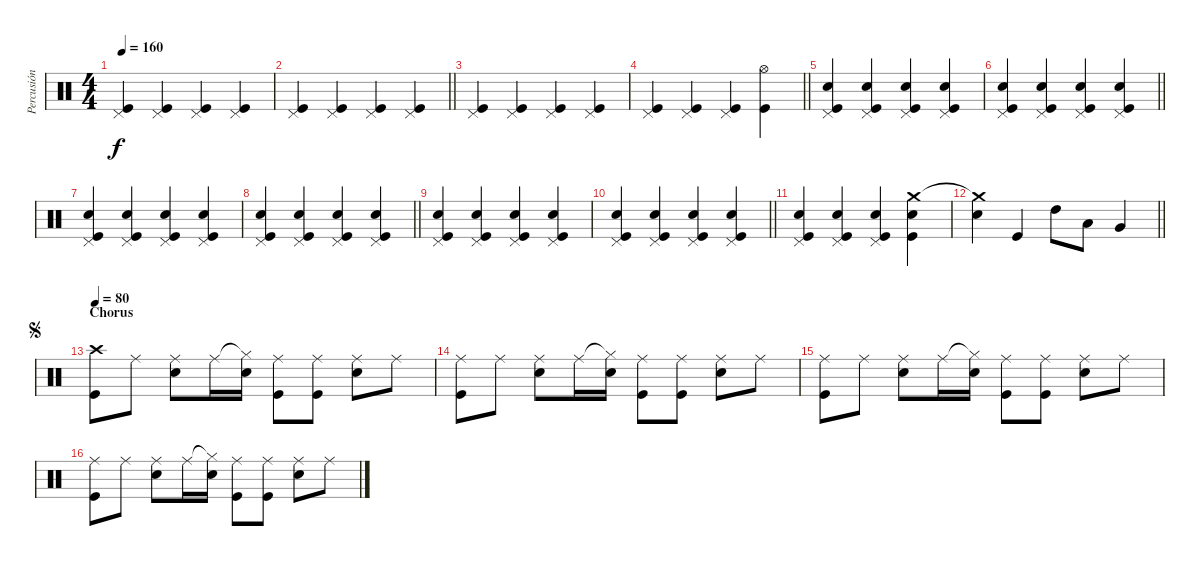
\track ("Percusión" "Percusión") {instrument percussion}
\staff {score}
\articulation defaults
\ts (4 4)
\tempo 160
\clef neutral
\ks c
("Pedal Hi-Hat (hit)" "Kick (hit)").4{dy f} ("Pedal Hi-Hat (hit)" "Kick (hit)").4 ("Pedal Hi-Hat (hit)" "Kick (hit)").4 ("Pedal Hi-Hat (hit)" "Kick (hit)").4 |
\barLineRight lightlight
("Pedal Hi-Hat (hit)" "Kick (hit)").4 ("Pedal Hi-Hat (hit)" "Kick (hit)").4 ("Pedal Hi-Hat (hit)" "Kick (hit)").4 ("Pedal Hi-Hat (hit)" "Kick (hit)").4 |
("Pedal Hi-Hat (hit)" "Kick (hit)").4 ("Pedal Hi-Hat (hit)" "Kick (hit)").4 ("Pedal Hi-Hat (hit)" "Kick (hit)").4 ("Pedal Hi-Hat (hit)" "Kick (hit)").4 |
\barLineRight lightlight
("Pedal Hi-Hat (hit)" "Kick (hit)").4 ("Pedal Hi-Hat (hit)" "Kick (hit)").4 ("Pedal Hi-Hat (hit)" "Kick (hit)").4 ("Hi-Hat (open)" "Kick (hit)").4 |
("Pedal Hi-Hat (hit)" "Snare (hit) 2" "Kick (hit)").4 ("Pedal Hi-Hat (hit)" "Snare (hit) 2" "Kick (hit)").4 ("Pedal Hi-Hat (hit)" "Snare (hit) 2" "Kick (hit)").4 ("Pedal Hi-Hat (hit)" "Snare (hit) 2" "Kick (hit)").4 |
\barLineRight lightlight
("Pedal Hi-Hat (hit)" "Snare (hit) 2" "Kick (hit)").4 ("Pedal Hi-Hat (hit)" "Snare (hit) 2" "Kick (hit)").4 ("Pedal Hi-Hat (hit)" "Snare (hit) 2" "Kick (hit)").4 ("Pedal Hi-Hat (hit)" "Snare (hit) 2" "Kick (hit)").4 |
("Pedal Hi-Hat (hit)" "Snare (hit) 2" "Kick (hit)").4 ("Pedal Hi-Hat (hit)" "Snare (hit) 2" "Kick (hit)").4 ("Pedal Hi-Hat (hit)" "Snare (hit) 2" "Kick (hit)").4 ("Pedal Hi-Hat (hit)" "Snare (hit) 2" "Kick (hit)").4 |
\barLineRight lightlight
("Pedal Hi-Hat (hit)" "Snare (hit) 2" "Kick (hit)").4 ("Pedal Hi-Hat (hit)" "Snare (hit) 2" "Kick (hit)").4 ("Pedal Hi-Hat (hit)" "Snare (hit) 2" "Kick (hit)").4 ("Pedal Hi-Hat (hit)" "Snare (hit) 2" "Kick (hit)").4 |
("Pedal Hi-Hat (hit)" "Snare (hit) 2" "Kick (hit)").4 ("Pedal Hi-Hat (hit)" "Snare (hit) 2" "Kick (hit)").4 ("Pedal Hi-Hat (hit)" "Snare (hit) 2" "Kick (hit)").4 ("Pedal Hi-Hat (hit)" "Snare (hit) 2" "Kick (hit)").4 |
\barLineRight lightlight
("Pedal Hi-Hat (hit)" "Snare (hit) 2" "Kick (hit)").4 ("Pedal Hi-Hat (hit)" "Snare (hit) 2" "Kick (hit)").4 ("Pedal Hi-Hat (hit)" "Snare (hit) 2" "Kick (hit)").4 ("Pedal Hi-Hat (hit)" "Snare (hit) 2" "Kick (hit)").4 |
("Pedal Hi-Hat (hit)" "Snare (hit) 2" "Kick (hit)").4 ("Pedal Hi-Hat (hit)" "Snare (hit) 2" "Kick (hit)").4 ("Pedal Hi-Hat (hit)" "Snare (hit) 2" "Kick (hit)").4 ("Crash medium (hit)" "Snare (hit) 2" "Kick (hit)").4 |
\barLineRight lightlight
("Crash medium (hit)"{t} "Snare (hit) 2").4 "Kick (hit)".4 "High Tom (hit)".8 "Low Tom (hit)".8 "Very Low Tom (hit)".4 |
\section ("" "Chorus")
\jump segno
\tempo 80
("Crash high (hit)" "Kick (hit)").8 "Ride (middle)".8 ("Ride (middle)" "Snare (hit) 2").8 "Ride (middle)".16 ("Hi-Hat (closed)"{t} "Snare (hit) 2").16 ("Ride (middle)" "Kick (hit)").8 ("Ride (middle)" "Kick (hit)").8 ("Ride (middle)" "Snare (hit) 2").8 "Ride (middle)".8 |
("Ride (middle)" "Kick (hit)").8 "Ride (middle)".8 ("Ride (middle)" "Snare (hit) 2").8 "Ride (middle)".16 ("Hi-Hat (closed)"{t} "Snare (hit) 2").16 ("Ride (middle)" "Kick (hit)").8 ("Ride (middle)" "Kick (hit)").8 ("Ride (middle)" "Snare (hit) 2").8 "Ride (middle)".8 |
("Ride (middle)" "Kick (hit)").8 "Ride (middle)".8 ("Ride (middle)" "Snare (hit) 2").8 "Ride (middle)".16 ("Hi-Hat (closed)"{t} "Snare (hit) 2").16 ("Ride (middle)" "Kick (hit)").8 ("Ride (middle)" "Kick (hit)").8 ("Ride (middle)" "Snare (hit) 2").8 "Ride (middle)".8 |
("Ride (middle)" "Kick (hit)").8 "Ride (middle)".8 ("Ride (middle)" "Snare (hit) 2").8 "Ride (middle)".16 ("Hi-Hat (closed)"{t} "Snare (hit) 2").16 ("Ride (middle)" "Kick (hit)").8 ("Ride (middle)" "Kick (hit)").8 ("Ride (middle)" "Snare (hit) 2").8 "Ride (middle)".8
